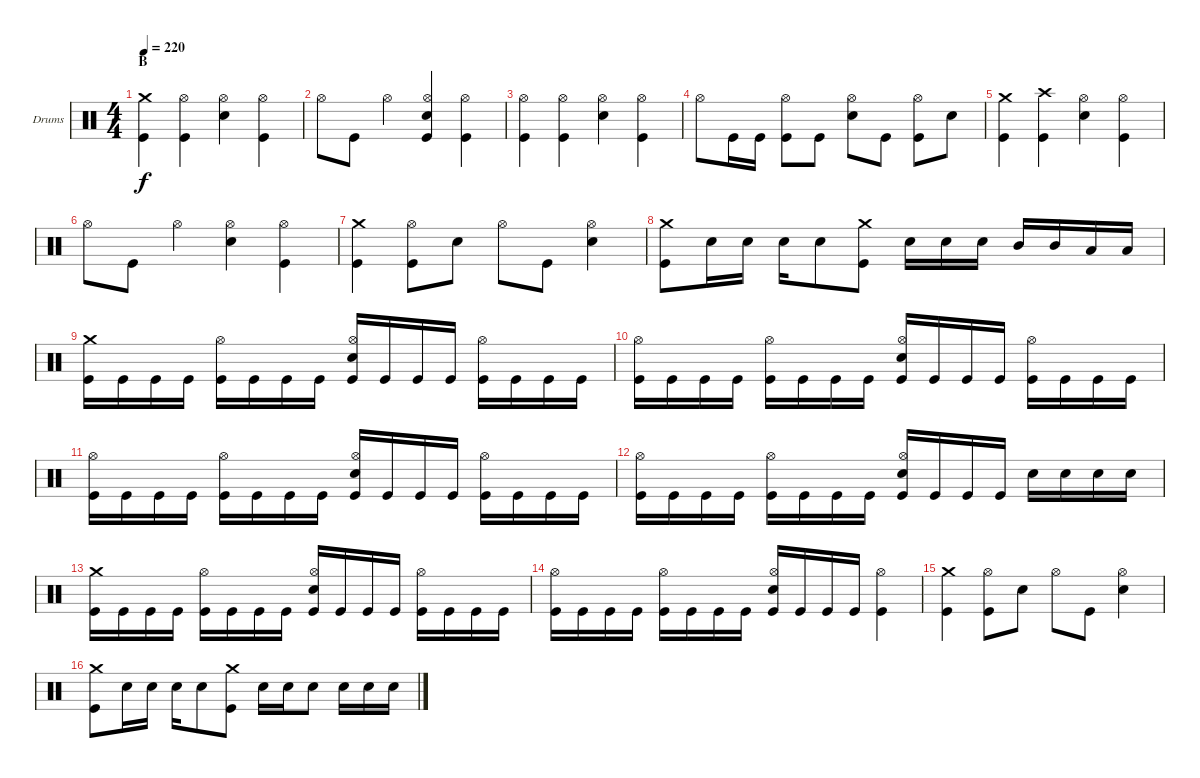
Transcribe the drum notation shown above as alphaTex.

\bracketExtendMode groupsimilarinstruments
\firstSystemTrackNameOrientation horizontal
\otherSystemsTrackNameOrientation horizontal
\track ("Drumkit" "Drums") {instrument percussion}
\staff {score}
\articulation defaults
\ts (4 4)
\section ("" "B")
\tempo 220
\clef neutral
\scale
0.48
\ks c
("Crash medium (hit)" "Kick (hit)").4{dy f} ("Hi-Hat (open)" "Kick (hit)").4 ("Hi-Hat (open)" "Snare (hit) 2").4 ("Hi-Hat (open)" "Kick (hit)").4 |
\scale
0.52 "Hi-Hat (open)".8 "Kick (hit)".8 "Hi-Hat (open)".4 ("Hi-Hat (open)" "Snare (hit) 2" "Kick (hit)").4 ("Hi-Hat (open)" "Kick (hit)").4 |
\scale
0.393443 ("Hi-Hat (open)" "Kick (hit)").4 ("Hi-Hat (open)" "Kick (hit)").4 ("Hi-Hat (open)" "Snare (hit) 2").4 ("Hi-Hat (open)" "Kick (hit)").4 |
\scale
0.606557 "Hi-Hat (open)".8 "Kick (hit)".16 "Kick (hit)".16 ("Hi-Hat (open)" "Kick (hit)").8 "Kick (hit)".8 ("Hi-Hat (open)" "Snare (hit) 2").8 "Kick (hit)".8 ("Hi-Hat (open)" "Kick (hit)").8 "Snare (hit) 2".8 |
\scale
0.48 ("Crash medium (hit)" "Kick (hit)").4 ("Crash high (hit)" "Kick (hit)").4 ("Hi-Hat (open)" "Snare (hit) 2").4 ("Hi-Hat (open)" "Kick (hit)").4 |
\scale
0.52 "Hi-Hat (open)".8 "Kick (hit)".8 "Hi-Hat (open)".4 ("Hi-Hat (open)" "Snare (hit) 2").4 ("Hi-Hat (open)" "Kick (hit)").4 |
\scale
0.387812 ("Crash medium (hit)" "Kick (hit)").4 ("Hi-Hat (open)" "Kick (hit)").8 "Snare (hit) 2".8 "Hi-Hat (open)".8 "Kick (hit)".8 ("Hi-Hat (open)" "Snare (hit) 2").4 |
\scale
0.612188 ("Crash medium (hit)" "Kick (hit)").8 "Snare (hit) 2".16 "Snare (hit) 2".16 "Snare (hit) 2".16 "Snare (hit) 2".8 ("Crash medium (hit)" "Kick (hit)").8 "Snare (hit) 2".16 "Snare (hit) 2".16 "Snare (hit) 2".16 "Mid Tom (hit)".16 "Mid Tom (hit)".16 "Low Tom (hit)".16 "Low Tom (hit)".16 |
\scale
0.5 ("Crash medium (hit)" "Kick (hit)").16 "Kick (hit)".16 "Kick (hit)".16 "Kick (hit)".16 ("Hi-Hat (open)" "Kick (hit)").16 "Kick (hit)".16 "Kick (hit)".16 "Kick (hit)".16 ("Hi-Hat (open)" "Snare (hit) 2" "Kick (hit)").16 "Kick (hit)".16 "Kick (hit)".16 "Kick (hit)".16 ("Hi-Hat (open)" "Kick (hit)").16 "Kick (hit)".16 "Kick (hit)".16 "Kick (hit)".16 |
\scale
0.5 ("Hi-Hat (open)" "Kick (hit)").16 "Kick (hit)".16 "Kick (hit)".16 "Kick (hit)".16 ("Hi-Hat (open)" "Kick (hit)").16 "Kick (hit)".16 "Kick (hit)".16 "Kick (hit)".16 ("Hi-Hat (open)" "Snare (hit) 2" "Kick (hit)").16 "Kick (hit)".16 "Kick (hit)".16 "Kick (hit)".16 ("Hi-Hat (open)" "Kick (hit)").16 "Kick (hit)".16 "Kick (hit)".16 "Kick (hit)".16 |
\scale
0.5 ("Hi-Hat (open)" "Kick (hit)").16 "Kick (hit)".16 "Kick (hit)".16 "Kick (hit)".16 ("Hi-Hat (open)" "Kick (hit)").16 "Kick (hit)".16 "Kick (hit)".16 "Kick (hit)".16 ("Hi-Hat (open)" "Snare (hit) 2" "Kick (hit)").16 "Kick (hit)".16 "Kick (hit)".16 "Kick (hit)".16 ("Hi-Hat (open)" "Kick (hit)").16 "Kick (hit)".16 "Kick (hit)".16 "Kick (hit)".16 |
\scale
0.5 ("Hi-Hat (open)" "Kick (hit)").16 "Kick (hit)".16 "Kick (hit)".16 "Kick (hit)".16 ("Hi-Hat (open)" "Kick (hit)").16 "Kick (hit)".16 "Kick (hit)".16 "Kick (hit)".16 ("Hi-Hat (open)" "Snare (hit) 2" "Kick (hit)").16 "Kick (hit)".16 "Kick (hit)".16 "Kick (hit)".16 "Snare (hit) 2".16 "Snare (hit) 2".16 "Snare (hit) 2".16 "Snare (hit) 2".16 |
\scale
0.529915 ("Crash medium (hit)" "Kick (hit)").16 "Kick (hit)".16 "Kick (hit)".16 "Kick (hit)".16 ("Hi-Hat (open)" "Kick (hit)").16 "Kick (hit)".16 "Kick (hit)".16 "Kick (hit)".16 ("Hi-Hat (open)" "Snare (hit) 2" "Kick (hit)").16 "Kick (hit)".16 "Kick (hit)".16 "Kick (hit)".16 ("Hi-Hat (open)" "Kick (hit)").16 "Kick (hit)".16 "Kick (hit)".16 "Kick (hit)".16 |
\scale
0.470085 ("Hi-Hat (open)" "Kick (hit)").16 "Kick (hit)".16 "Kick (hit)".16 "Kick (hit)".16 ("Hi-Hat (open)" "Kick (hit)").16 "Kick (hit)".16 "Kick (hit)".16 "Kick (hit)".16 ("Hi-Hat (open)" "Snare (hit) 2" "Kick (hit)").16 "Kick (hit)".16 "Kick (hit)".16 "Kick (hit)".16 ("Hi-Hat (open)" "Kick (hit)").4 |
\scale
0.397727 ("Crash medium (hit)" "Kick (hit)").4 ("Hi-Hat (open)" "Kick (hit)").8 "Snare (hit) 2".8 "Hi-Hat (open)".8 "Kick (hit)".8 ("Hi-Hat (open)" "Snare (hit) 2").4 |
\scale
0.602273 ("Crash medium (hit)" "Kick (hit)").8 "Snare (hit) 2".16 "Snare (hit) 2".16 "Snare (hit) 2".16 "Snare (hit) 2".8 ("Crash medium (hit)" "Kick (hit)").8 "Snare (hit) 2".16 "Snare (hit) 2".16 "Snare (hit) 2".8 "Snare (hit) 2".16 "Snare (hit) 2".16 "Snare (hit) 2".16
